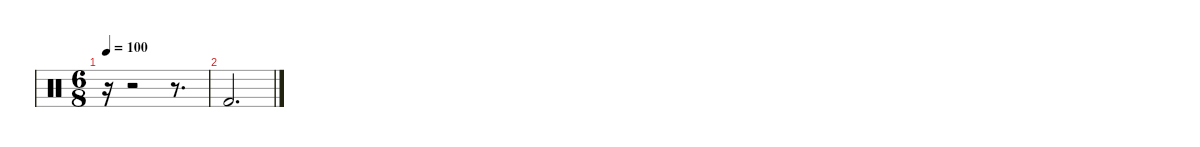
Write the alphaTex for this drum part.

\defaultSystemsLayout 4
\hideDynamics
\bracketExtendMode nobrackets
\singleTrackTrackNamePolicy hidden
\multiTrackTrackNamePolicy hidden
\firstSystemTrackNameMode fullname
\firstSystemTrackNameOrientation horizontal
\otherSystemsTrackNameOrientation horizontal
\track ("Drums" "drm.") {instrument percussion}
\staff {score}
\articulation defaults
\ts (6 8)
\tempo 100
\clef neutral
\ks c
r.16{dy f beam Down} r.2{beam Down} r.8{d beam Down} |
"Kick (hit) 2".2{d beam Up}
